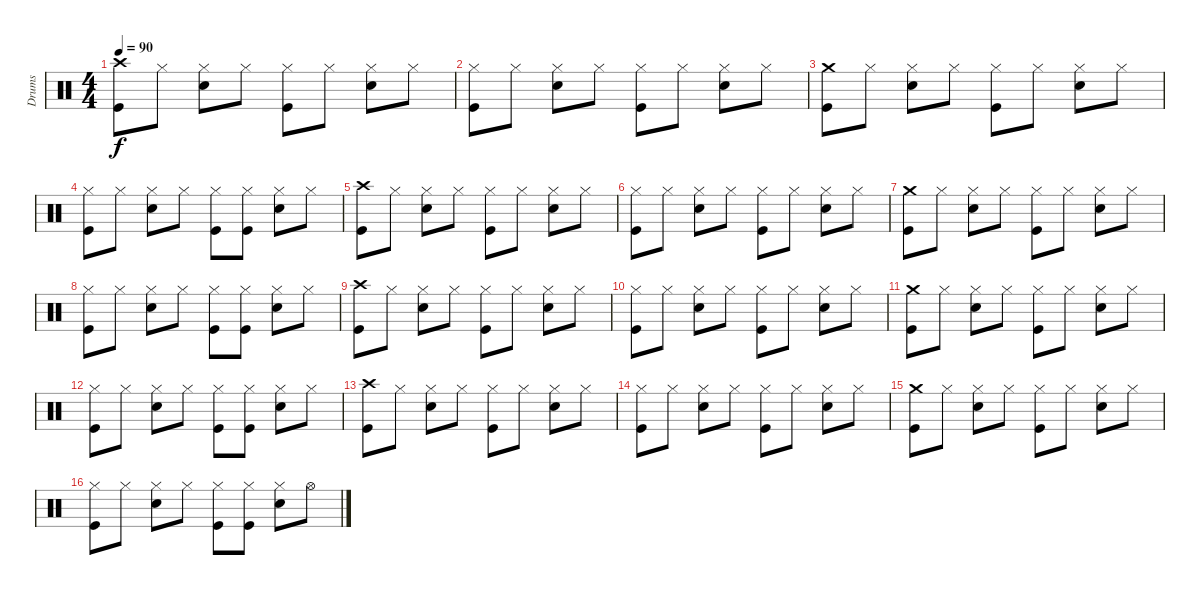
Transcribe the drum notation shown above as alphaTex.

\track ("Drums" "Drums") {instrument percussion}
\staff {score}
\articulation defaults
\ts (4 4)
\tempo 90
\clef neutral
\ks c
("Crash high (hit)" "Kick (hit)").8{dy f} "Hi-Hat (closed)".8 ("Hi-Hat (closed)" "Electric Snare (hit)").8 "Hi-Hat (closed)".8 ("Hi-Hat (closed)" "Kick (hit)").8 "Hi-Hat (closed)".8 ("Hi-Hat (closed)" "Electric Snare (hit)").8 "Hi-Hat (closed)".8 |
("Hi-Hat (closed)" "Kick (hit)").8 "Hi-Hat (closed)".8 ("Hi-Hat (closed)" "Electric Snare (hit)").8 "Hi-Hat (closed)".8 ("Hi-Hat (closed)" "Kick (hit)").8 "Hi-Hat (closed)".8 ("Hi-Hat (closed)" "Electric Snare (hit)").8 "Hi-Hat (closed)".8 |
("Crash medium (hit)" "Kick (hit)").8 "Hi-Hat (closed)".8 ("Hi-Hat (closed)" "Electric Snare (hit)").8 "Hi-Hat (closed)".8 ("Hi-Hat (closed)" "Kick (hit)").8 "Hi-Hat (closed)".8 ("Hi-Hat (closed)" "Electric Snare (hit)").8 "Hi-Hat (closed)".8 |
("Hi-Hat (closed)" "Kick (hit)").8 "Hi-Hat (closed)".8 ("Hi-Hat (closed)" "Electric Snare (hit)").8 "Hi-Hat (closed)".8 ("Hi-Hat (closed)" "Kick (hit)").8 ("Hi-Hat (closed)" "Kick (hit)").8 ("Hi-Hat (closed)" "Electric Snare (hit)").8 "Hi-Hat (closed)".8 |
("Crash high (hit)" "Kick (hit)").8 "Hi-Hat (closed)".8 ("Hi-Hat (closed)" "Electric Snare (hit)").8 "Hi-Hat (closed)".8 ("Hi-Hat (closed)" "Kick (hit)").8 "Hi-Hat (closed)".8 ("Hi-Hat (closed)" "Electric Snare (hit)").8 "Hi-Hat (closed)".8 |
("Hi-Hat (closed)" "Kick (hit)").8 "Hi-Hat (closed)".8 ("Hi-Hat (closed)" "Electric Snare (hit)").8 "Hi-Hat (closed)".8 ("Hi-Hat (closed)" "Kick (hit)").8 "Hi-Hat (closed)".8 ("Hi-Hat (closed)" "Electric Snare (hit)").8 "Hi-Hat (closed)".8 |
("Crash medium (hit)" "Kick (hit)").8 "Hi-Hat (closed)".8 ("Hi-Hat (closed)" "Electric Snare (hit)").8 "Hi-Hat (closed)".8 ("Hi-Hat (closed)" "Kick (hit)").8 "Hi-Hat (closed)".8 ("Hi-Hat (closed)" "Electric Snare (hit)").8 "Hi-Hat (closed)".8 |
("Hi-Hat (closed)" "Kick (hit)").8 "Hi-Hat (closed)".8 ("Hi-Hat (closed)" "Electric Snare (hit)").8 "Hi-Hat (closed)".8 ("Hi-Hat (closed)" "Kick (hit)").8 ("Hi-Hat (closed)" "Kick (hit)").8 ("Hi-Hat (closed)" "Electric Snare (hit)").8 "Hi-Hat (closed)".8 |
("Crash high (hit)" "Kick (hit)").8 "Hi-Hat (closed)".8 ("Hi-Hat (closed)" "Electric Snare (hit)").8 "Hi-Hat (closed)".8 ("Hi-Hat (closed)" "Kick (hit)").8 "Hi-Hat (closed)".8 ("Hi-Hat (closed)" "Electric Snare (hit)").8 "Hi-Hat (closed)".8 |
("Hi-Hat (closed)" "Kick (hit)").8 "Hi-Hat (closed)".8 ("Hi-Hat (closed)" "Electric Snare (hit)").8 "Hi-Hat (closed)".8 ("Hi-Hat (closed)" "Kick (hit)").8 "Hi-Hat (closed)".8 ("Hi-Hat (closed)" "Electric Snare (hit)").8 "Hi-Hat (closed)".8 |
("Crash medium (hit)" "Kick (hit)").8 "Hi-Hat (closed)".8 ("Hi-Hat (closed)" "Electric Snare (hit)").8 "Hi-Hat (closed)".8 ("Hi-Hat (closed)" "Kick (hit)").8 "Hi-Hat (closed)".8 ("Hi-Hat (closed)" "Electric Snare (hit)").8 "Hi-Hat (closed)".8 |
("Hi-Hat (closed)" "Kick (hit)").8 "Hi-Hat (closed)".8 ("Hi-Hat (closed)" "Electric Snare (hit)").8 "Hi-Hat (closed)".8 ("Hi-Hat (closed)" "Kick (hit)").8 ("Hi-Hat (closed)" "Kick (hit)").8 ("Hi-Hat (closed)" "Electric Snare (hit)").8 "Hi-Hat (closed)".8 |
("Crash high (hit)" "Kick (hit)").8 "Hi-Hat (closed)".8 ("Hi-Hat (closed)" "Electric Snare (hit)").8 "Hi-Hat (closed)".8 ("Hi-Hat (closed)" "Kick (hit)").8 "Hi-Hat (closed)".8 ("Hi-Hat (closed)" "Electric Snare (hit)").8 "Hi-Hat (closed)".8 |
("Hi-Hat (closed)" "Kick (hit)").8 "Hi-Hat (closed)".8 ("Hi-Hat (closed)" "Electric Snare (hit)").8 "Hi-Hat (closed)".8 ("Hi-Hat (closed)" "Kick (hit)").8 "Hi-Hat (closed)".8 ("Hi-Hat (closed)" "Electric Snare (hit)").8 "Hi-Hat (closed)".8 |
("Crash medium (hit)" "Kick (hit)").8 "Hi-Hat (closed)".8 ("Hi-Hat (closed)" "Electric Snare (hit)").8 "Hi-Hat (closed)".8 ("Hi-Hat (closed)" "Kick (hit)").8 "Hi-Hat (closed)".8 ("Hi-Hat (closed)" "Electric Snare (hit)").8 "Hi-Hat (closed)".8 |
("Hi-Hat (closed)" "Kick (hit)").8 "Hi-Hat (closed)".8 ("Hi-Hat (closed)" "Electric Snare (hit)").8 "Hi-Hat (closed)".8 ("Hi-Hat (closed)" "Kick (hit)").8 ("Hi-Hat (closed)" "Kick (hit)").8 ("Hi-Hat (closed)" "Electric Snare (hit)").8 "Hi-Hat (open)".8
